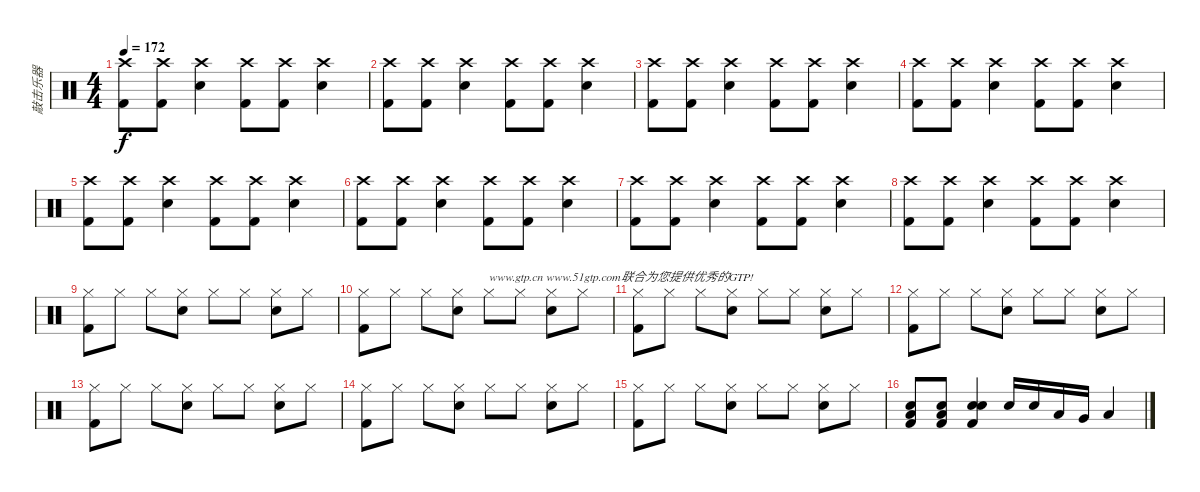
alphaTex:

\track ("敲击乐器" "敲击乐器") {instrument percussion}
\staff {score}
\articulation defaults
\ts (4 4)
\tempo 172
\clef neutral
\ks c
("Crash high (hit)" "Kick (hit) 2").8{dy f} ("Crash high (hit)" "Kick (hit) 2").8 ("Crash high (hit)" "Electric Snare (hit)").4 ("Crash high (hit)" "Kick (hit) 2").8 ("Crash high (hit)" "Kick (hit) 2").8 ("Crash high (hit)" "Electric Snare (hit)").4 |
("Crash high (hit)" "Kick (hit) 2").8 ("Crash high (hit)" "Kick (hit) 2").8 ("Crash high (hit)" "Electric Snare (hit)").4 ("Crash high (hit)" "Kick (hit) 2").8 ("Crash high (hit)" "Kick (hit) 2").8 ("Crash high (hit)" "Electric Snare (hit)").4 |
("Crash high (hit)" "Kick (hit) 2").8 ("Crash high (hit)" "Kick (hit) 2").8 ("Crash high (hit)" "Electric Snare (hit)").4 ("Crash high (hit)" "Kick (hit) 2").8 ("Crash high (hit)" "Kick (hit) 2").8 ("Crash high (hit)" "Electric Snare (hit)").4 |
("Crash high (hit)" "Kick (hit) 2").8 ("Crash high (hit)" "Kick (hit) 2").8 ("Crash high (hit)" "Electric Snare (hit)").4 ("Crash high (hit)" "Kick (hit) 2").8 ("Crash high (hit)" "Kick (hit) 2").8 ("Crash high (hit)" "Electric Snare (hit)").4 |
("Crash high (hit)" "Kick (hit) 2").8 ("Crash high (hit)" "Kick (hit) 2").8 ("Crash high (hit)" "Electric Snare (hit)").4 ("Crash high (hit)" "Kick (hit) 2").8 ("Crash high (hit)" "Kick (hit) 2").8 ("Crash high (hit)" "Electric Snare (hit)").4 |
("Crash high (hit)" "Kick (hit) 2").8 ("Crash high (hit)" "Kick (hit) 2").8 ("Crash high (hit)" "Electric Snare (hit)").4 ("Crash high (hit)" "Kick (hit) 2").8 ("Crash high (hit)" "Kick (hit) 2").8 ("Crash high (hit)" "Electric Snare (hit)").4 |
("Crash high (hit)" "Kick (hit) 2").8 ("Crash high (hit)" "Kick (hit) 2").8 ("Crash high (hit)" "Electric Snare (hit)").4 ("Crash high (hit)" "Kick (hit) 2").8 ("Crash high (hit)" "Kick (hit) 2").8 ("Crash high (hit)" "Electric Snare (hit)").4 |
("Crash high (hit)" "Kick (hit) 2").8 ("Crash high (hit)" "Kick (hit) 2").8 ("Crash high (hit)" "Electric Snare (hit)").4 ("Crash high (hit)" "Kick (hit) 2").8 ("Crash high (hit)" "Kick (hit) 2").8 ("Crash high (hit)" "Electric Snare (hit)").4 |
("Hi-Hat (closed)" "Kick (hit) 2").8 "Hi-Hat (closed)".8 "Hi-Hat (closed)".8 ("Hi-Hat (closed)" "Electric Snare (hit)").8 "Hi-Hat (closed)".8 "Hi-Hat (closed)".8 ("Hi-Hat (closed)" "Electric Snare (hit)").8 "Hi-Hat (closed)".8 |
("Hi-Hat (closed)" "Kick (hit) 2").8 "Hi-Hat (closed)".8 "Hi-Hat (closed)".8 ("Hi-Hat (closed)" "Electric Snare (hit)").8 "Hi-Hat (closed)".8{txt "www.gtp.cn www.51gtp.com联合为您提供优秀的GTP!"} "Hi-Hat (closed)".8 ("Hi-Hat (closed)" "Electric Snare (hit)").8 "Hi-Hat (closed)".8 |
("Hi-Hat (closed)" "Kick (hit) 2").8 "Hi-Hat (closed)".8 "Hi-Hat (closed)".8 ("Hi-Hat (closed)" "Electric Snare (hit)").8 "Hi-Hat (closed)".8 "Hi-Hat (closed)".8 ("Hi-Hat (closed)" "Electric Snare (hit)").8 "Hi-Hat (closed)".8 |
("Hi-Hat (closed)" "Kick (hit) 2").8 "Hi-Hat (closed)".8 "Hi-Hat (closed)".8 ("Hi-Hat (closed)" "Electric Snare (hit)").8 "Hi-Hat (closed)".8 "Hi-Hat (closed)".8 ("Hi-Hat (closed)" "Electric Snare (hit)").8 "Hi-Hat (closed)".8 |
("Hi-Hat (closed)" "Kick (hit) 2").8 "Hi-Hat (closed)".8 "Hi-Hat (closed)".8 ("Hi-Hat (closed)" "Electric Snare (hit)").8 "Hi-Hat (closed)".8 "Hi-Hat (closed)".8 ("Hi-Hat (closed)" "Electric Snare (hit)").8 "Hi-Hat (closed)".8 |
("Hi-Hat (closed)" "Kick (hit) 2").8 "Hi-Hat (closed)".8 "Hi-Hat (closed)".8 ("Hi-Hat (closed)" "Electric Snare (hit)").8 "Hi-Hat (closed)".8 "Hi-Hat (closed)".8 ("Hi-Hat (closed)" "Electric Snare (hit)").8 "Hi-Hat (closed)".8 |
("Hi-Hat (closed)" "Kick (hit) 2").8 "Hi-Hat (closed)".8 "Hi-Hat (closed)".8 ("Hi-Hat (closed)" "Electric Snare (hit)").8 "Hi-Hat (closed)".8 "Hi-Hat (closed)".8 ("Hi-Hat (closed)" "Electric Snare (hit)").8 "Hi-Hat (closed)".8 |
("Low Floor Tom (hit)" "Electric Snare (hit)" "Kick (hit) 2").8 ("Low Floor Tom (hit)" "Electric Snare (hit)" "Kick (hit) 2").8 ("Snare (hit)" "Electric Snare (hit)" "Kick (hit) 2").4 "Electric Snare (hit)".16 "Electric Snare (hit)".16 "Low Tom (hit)".16 "Very Low Tom (hit)".16 "Low Floor Tom (hit)".4
